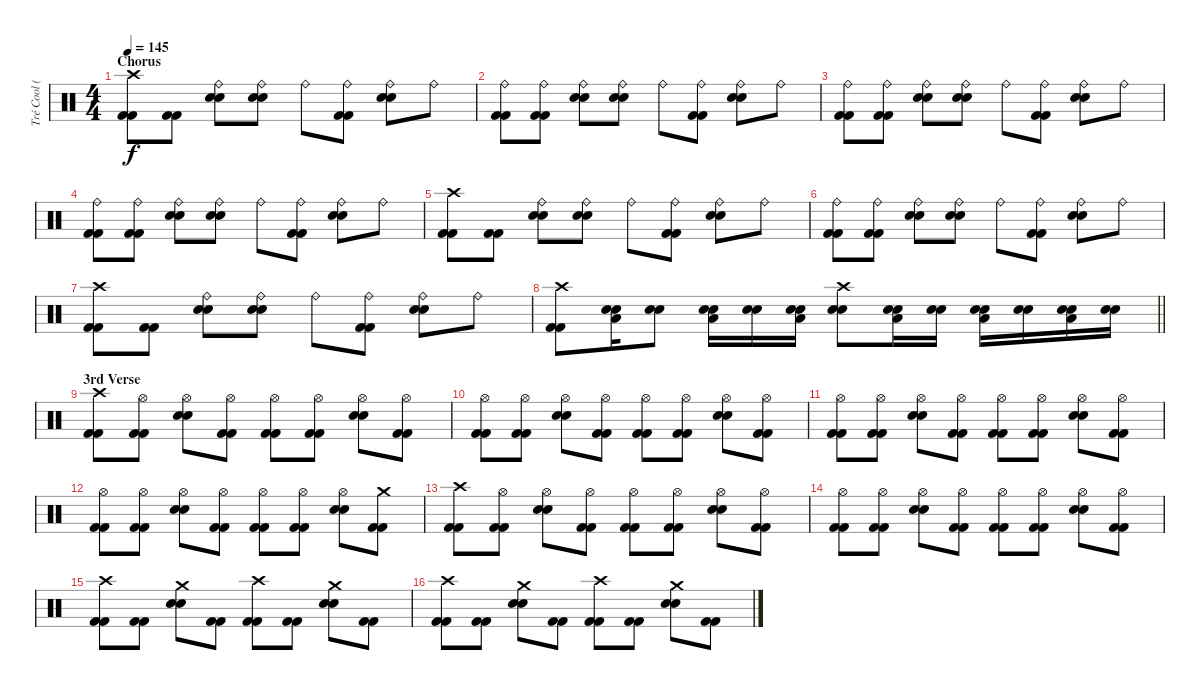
\track ("Tré Cool (Drums)" "Tré Cool (") {instrument percussion}
\staff {score}
\articulation defaults
\ts (4 4)
\section ("" "Chorus")
\tempo 145
\clef neutral
\ks c
("Kick (hit) 2" "Kick (hit) 2" "Crash high (hit)").8{dy f} ("Kick (hit) 2" "Kick (hit) 2").8 ("Snare (hit) 2" "Snare (hit) 2" "Ride (bell)").8 ("Snare (hit) 2" "Snare (hit) 2" "Ride (bell)").8 "Ride (bell)".8 ("Kick (hit) 2" "Kick (hit) 2" "Ride (bell)").8 ("Snare (hit) 2" "Snare (hit) 2" "Ride (bell)").8 "Ride (bell)".8 |
("Kick (hit) 2" "Kick (hit) 2" "Ride (bell)").8 ("Kick (hit) 2" "Kick (hit) 2" "Ride (bell)").8 ("Snare (hit) 2" "Snare (hit) 2" "Ride (bell)").8 ("Snare (hit) 2" "Snare (hit) 2" "Ride (bell)").8 "Ride (bell)".8 ("Kick (hit) 2" "Kick (hit) 2" "Ride (bell)").8 ("Snare (hit) 2" "Snare (hit) 2" "Ride (bell)").8 "Ride (bell)".8 |
("Kick (hit) 2" "Kick (hit) 2" "Ride (bell)").8 ("Kick (hit) 2" "Kick (hit) 2" "Ride (bell)").8 ("Snare (hit) 2" "Snare (hit) 2" "Ride (bell)").8 ("Snare (hit) 2" "Snare (hit) 2" "Ride (bell)").8 "Ride (bell)".8 ("Kick (hit) 2" "Kick (hit) 2" "Ride (bell)").8 ("Snare (hit) 2" "Snare (hit) 2" "Ride (bell)").8 "Ride (bell)".8 |
("Kick (hit) 2" "Kick (hit) 2" "Ride (bell)").8 ("Kick (hit) 2" "Kick (hit) 2" "Ride (bell)").8 ("Snare (hit) 2" "Snare (hit) 2" "Ride (bell)").8 ("Snare (hit) 2" "Snare (hit) 2" "Ride (bell)").8 "Ride (bell)".8 ("Kick (hit) 2" "Kick (hit) 2" "Ride (bell)").8 ("Snare (hit) 2" "Snare (hit) 2" "Ride (bell)").8 "Ride (bell)".8 |
("Kick (hit) 2" "Kick (hit) 2" "Crash high (hit)").8 ("Kick (hit) 2" "Kick (hit) 2").8 ("Snare (hit) 2" "Snare (hit) 2" "Ride (bell)").8 ("Snare (hit) 2" "Snare (hit) 2" "Ride (bell)").8 "Ride (bell)".8 ("Kick (hit) 2" "Kick (hit) 2" "Ride (bell)").8 ("Snare (hit) 2" "Snare (hit) 2" "Ride (bell)").8 "Ride (bell)".8 |
("Kick (hit) 2" "Kick (hit) 2" "Ride (bell)").8 ("Kick (hit) 2" "Kick (hit) 2" "Ride (bell)").8 ("Snare (hit) 2" "Snare (hit) 2" "Ride (bell)").8 ("Snare (hit) 2" "Snare (hit) 2" "Ride (bell)").8 "Ride (bell)".8 ("Kick (hit) 2" "Kick (hit) 2" "Ride (bell)").8 ("Snare (hit) 2" "Snare (hit) 2" "Ride (bell)").8 "Ride (bell)".8 |
("Kick (hit) 2" "Kick (hit) 2" "Crash high (hit)").8 ("Kick (hit) 2" "Kick (hit) 2").8 ("Snare (hit) 2" "Snare (hit) 2" "Ride (bell)").8 ("Snare (hit) 2" "Snare (hit) 2" "Ride (bell)").8 "Ride (bell)".8 ("Kick (hit) 2" "Kick (hit) 2" "Ride (bell)").8 ("Snare (hit) 2" "Snare (hit) 2" "Ride (bell)").8 "Ride (bell)".8 |
\barLineRight lightlight
("Kick (hit) 2" "Kick (hit) 2" "Crash high (hit)").8 ("Electric Snare (hit)" "Electric Snare (hit)" "Low Floor Tom (hit)").16 ("Snare (hit) 2" "Snare (hit) 2").8 ("Electric Snare (hit)" "Electric Snare (hit)" "Low Floor Tom (hit)").16 ("Snare (hit) 2" "Snare (hit) 2").16 ("Electric Snare (hit)" "Electric Snare (hit)" "Low Floor Tom (hit)").16 ("Snare (hit) 2" "Snare (hit) 2" "Crash high (hit)").8 ("Electric Snare (hit)" "Electric Snare (hit)" "Low Floor Tom (hit)").16 ("Snare (hit) 2" "Snare (hit) 2").16 ("Electric Snare (hit)" "Electric Snare (hit)" "Low Floor Tom (hit)").16 ("Snare (hit) 2" "Snare (hit) 2").16 ("Electric Snare (hit)" "Electric Snare (hit)" "Low Floor Tom (hit)").16 ("Snare (hit) 2" "Snare (hit) 2").16 |
\section ("" "3rd Verse")
("Kick (hit) 2" "Kick (hit) 2" "Crash high (hit)").8 ("Kick (hit) 2" "Kick (hit) 2" "Hi-Hat (open)").8 ("Snare (hit) 2" "Snare (hit) 2" "Hi-Hat (open)").8 ("Kick (hit) 2" "Kick (hit) 2" "Hi-Hat (open)").8 ("Kick (hit) 2" "Kick (hit) 2" "Hi-Hat (open)").8 ("Kick (hit) 2" "Kick (hit) 2" "Hi-Hat (open)").8 ("Snare (hit) 2" "Snare (hit) 2" "Hi-Hat (open)").8 ("Kick (hit) 2" "Kick (hit) 2" "Hi-Hat (open)").8 |
("Kick (hit) 2" "Kick (hit) 2" "Hi-Hat (open)").8 ("Kick (hit) 2" "Kick (hit) 2" "Hi-Hat (open)").8 ("Snare (hit) 2" "Snare (hit) 2" "Hi-Hat (open)").8 ("Kick (hit) 2" "Kick (hit) 2" "Hi-Hat (open)").8 ("Kick (hit) 2" "Kick (hit) 2" "Hi-Hat (open)").8 ("Kick (hit) 2" "Kick (hit) 2" "Hi-Hat (open)").8 ("Snare (hit) 2" "Snare (hit) 2" "Hi-Hat (open)").8 ("Kick (hit) 2" "Kick (hit) 2" "Hi-Hat (open)").8 |
("Kick (hit) 2" "Kick (hit) 2" "Hi-Hat (open)").8 ("Kick (hit) 2" "Kick (hit) 2" "Hi-Hat (open)").8 ("Snare (hit) 2" "Snare (hit) 2" "Hi-Hat (open)").8 ("Kick (hit) 2" "Kick (hit) 2" "Hi-Hat (open)").8 ("Kick (hit) 2" "Kick (hit) 2" "Hi-Hat (open)").8 ("Kick (hit) 2" "Kick (hit) 2" "Hi-Hat (open)").8 ("Snare (hit) 2" "Snare (hit) 2" "Hi-Hat (open)").8 ("Kick (hit) 2" "Kick (hit) 2" "Hi-Hat (open)").8 |
("Kick (hit) 2" "Kick (hit) 2" "Hi-Hat (open)").8 ("Kick (hit) 2" "Kick (hit) 2" "Hi-Hat (open)").8 ("Snare (hit) 2" "Snare (hit) 2" "Hi-Hat (open)").8 ("Kick (hit) 2" "Kick (hit) 2" "Hi-Hat (open)").8 ("Kick (hit) 2" "Kick (hit) 2" "Hi-Hat (open)").8 ("Kick (hit) 2" "Kick (hit) 2" "Hi-Hat (open)").8 ("Snare (hit) 2" "Snare (hit) 2" "Hi-Hat (open)").8 ("Kick (hit) 2" "Kick (hit) 2" "Crash medium (hit)").8 |
("Kick (hit) 2" "Kick (hit) 2" "Crash high (hit)").8 ("Kick (hit) 2" "Kick (hit) 2" "Hi-Hat (open)").8 ("Snare (hit) 2" "Snare (hit) 2" "Hi-Hat (open)").8 ("Kick (hit) 2" "Kick (hit) 2" "Hi-Hat (open)").8 ("Kick (hit) 2" "Kick (hit) 2" "Hi-Hat (open)").8 ("Kick (hit) 2" "Kick (hit) 2" "Hi-Hat (open)").8 ("Snare (hit) 2" "Snare (hit) 2" "Hi-Hat (open)").8 ("Kick (hit) 2" "Kick (hit) 2" "Hi-Hat (open)").8 |
("Kick (hit) 2" "Kick (hit) 2" "Hi-Hat (open)").8 ("Kick (hit) 2" "Kick (hit) 2" "Hi-Hat (open)").8 ("Snare (hit) 2" "Snare (hit) 2" "Hi-Hat (open)").8 ("Kick (hit) 2" "Kick (hit) 2" "Hi-Hat (open)").8 ("Kick (hit) 2" "Kick (hit) 2" "Hi-Hat (open)").8 ("Kick (hit) 2" "Kick (hit) 2" "Hi-Hat (open)").8 ("Snare (hit) 2" "Snare (hit) 2" "Hi-Hat (open)").8 ("Kick (hit) 2" "Kick (hit) 2" "Hi-Hat (open)").8 |
("Kick (hit) 2" "Kick (hit) 2" "Crash high (hit)").8 ("Kick (hit) 2" "Kick (hit) 2").8 ("Snare (hit) 2" "Snare (hit) 2" "Crash medium (hit)").8 ("Kick (hit) 2" "Kick (hit) 2").8 ("Kick (hit) 2" "Kick (hit) 2" "Crash high (hit)").8 ("Kick (hit) 2" "Kick (hit) 2").8 ("Snare (hit) 2" "Snare (hit) 2" "Crash medium (hit)").8 ("Kick (hit) 2" "Kick (hit) 2").8 |
("Kick (hit) 2" "Kick (hit) 2" "Crash high (hit)").8 ("Kick (hit) 2" "Kick (hit) 2").8 ("Snare (hit) 2" "Snare (hit) 2" "Crash medium (hit)").8 ("Kick (hit) 2" "Kick (hit) 2").8 ("Kick (hit) 2" "Kick (hit) 2" "Crash high (hit)").8 ("Kick (hit) 2" "Kick (hit) 2").8 ("Snare (hit) 2" "Snare (hit) 2" "Crash medium (hit)").8 ("Kick (hit) 2" "Kick (hit) 2").8
